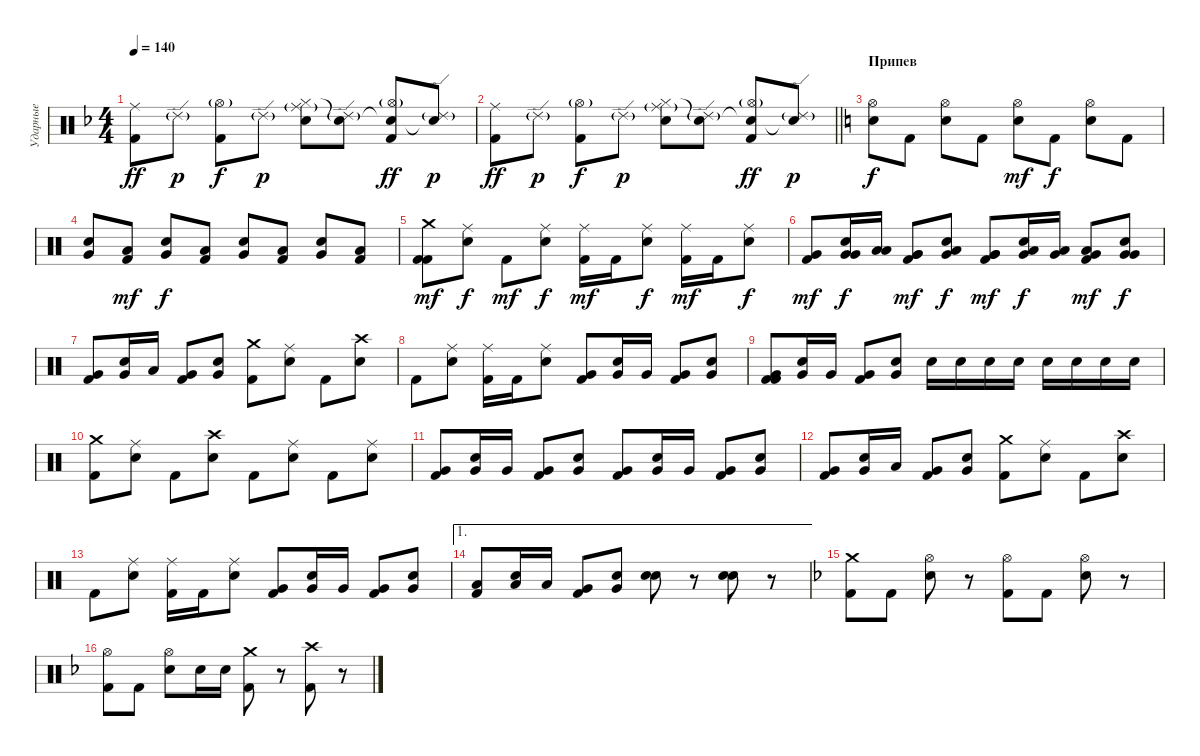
\track ("Ударные" "Ударные") {instrument percussion}
\staff {score}
\articulation defaults
\ts (4 4)
\tempo 140
\clef neutral
\ks f
("Ride (middle)" "Kick (hit) 2").8{dy ff} "Ride (edge) 2"{g}.8{dy p} ("Hi-Hat (open)"{g} "Kick (hit) 2").8{dy f} "Ride (edge) 2"{g}.8{dy p} ("Ride (middle)"{g} "Hi-Hat (closed)" "Electric Snare (hit)").8 ("Ride (edge) 2"{g} "Snare (hit)"{t}).8 ("Hi-Hat (open)"{g} "Snare (hit)"{t} "Kick (hit) 2").8{dy ff} ("Ride (edge) 2"{g} "Snare (hit)"{t}).8{dy p} |
\barLineRight lightlight
("Ride (middle)" "Kick (hit) 2").8{dy ff} "Ride (edge) 2"{g}.8{dy p} ("Hi-Hat (open)"{g} "Kick (hit) 2").8{dy f} "Ride (edge) 2"{g}.8{dy p} ("Ride (middle)"{g} "Hi-Hat (closed)" "Electric Snare (hit)").8 ("Ride (edge) 2"{g} "Snare (hit)"{t}).8 ("Hi-Hat (open)"{g} "Snare (hit)"{t} "Kick (hit) 2").8{dy ff} ("Ride (edge) 2"{g} "Snare (hit)"{t}).8{dy p} |
\section ("" "Припев")
\ks c
("Hi-Hat (open)" "Snare (hit) 2").8{dy f} "Kick (hit) 2".8 ("Hi-Hat (open)" "Snare (hit) 2").8 "Kick (hit) 2".8 ("Hi-Hat (open)" "Snare (hit) 2").8{dy mf} "Kick (hit) 2".8{dy f} ("Hi-Hat (open)" "Snare (hit) 2").8 "Kick (hit) 2".8 |
("Very Low Tom (hit)" "Snare (hit) 2").8 ("Low Tom (hit)" "Kick (hit) 2").8{dy mf} ("Very Low Tom (hit)" "Snare (hit) 2").8{dy f} ("Low Tom (hit)" "Kick (hit) 2").8 ("Very Low Tom (hit)" "Snare (hit) 2").8 ("Low Tom (hit)" "Kick (hit) 2").8 ("Very Low Tom (hit)" "Snare (hit) 2").8 ("Low Tom (hit)" "Kick (hit) 2").8 |
("Crash medium (hit)" "Kick (hit) 2" "Kick (hit) 2").8{dy mf} ("Ride (middle)" "Snare (hit) 2").8{dy f} "Kick (hit) 2".8{dy mf} ("Ride (middle)" "Snare (hit) 2").8{dy f} ("Ride (middle)" "Kick (hit) 2").16{dy mf} "Kick (hit) 2".16 ("Ride (middle)" "Snare (hit) 2").8{dy f} ("Ride (middle)" "Kick (hit) 2").16{dy mf} "Kick (hit) 2".16 ("Ride (middle)" "Snare (hit) 2").8{dy f} |
("Very Low Tom (hit)" "Kick (hit) 2").8{dy mf} ("Very Low Tom (hit)" "Very Low Tom (hit)" "Snare (hit) 2").16{dy f} ("Low Tom (hit)" "Low Tom (hit)").16 ("Very Low Tom (hit)" "Very Low Tom (hit)" "Kick (hit) 2").8{dy mf} ("Very Low Tom (hit)" "Low Tom (hit)" "Snare (hit) 2").8{dy f} ("Very Low Tom (hit)" "Very Low Tom (hit)" "Kick (hit) 2").8{dy mf} ("Very Low Tom (hit)" "Low Tom (hit)" "Snare (hit) 2").16{dy f} ("Low Tom (hit)" "Very Low Tom (hit)").16 ("Very Low Tom (hit)" "Low Tom (hit)" "Kick (hit) 2").8{dy mf} ("Very Low Tom (hit)" "Very Low Tom (hit)" "Snare (hit) 2").8{dy f} |
("Very Low Tom (hit)" "Kick (hit) 2").8 ("Very Low Tom (hit)" "Snare (hit) 2").16 "Low Tom (hit)".16 ("Very Low Tom (hit)" "Kick (hit) 2").8 ("Very Low Tom (hit)" "Snare (hit) 2").8 ("Crash medium (hit)" "Kick (hit) 2").8 ("Ride (middle)" "Snare (hit) 2").8 "Kick (hit) 2".8 ("Crash high (hit)" "Snare (hit) 2").8 |
"Kick (hit) 2".8 ("Ride (middle)" "Snare (hit) 2").8 ("Ride (middle)" "Kick (hit) 2").16 "Kick (hit) 2".16 ("Ride (middle)" "Snare (hit) 2").8 ("Very Low Tom (hit)" "Kick (hit) 2").8 ("Very Low Tom (hit)" "Snare (hit) 2").16 "Very Low Tom (hit)".16 ("Very Low Tom (hit)" "Kick (hit) 2").8 ("Very Low Tom (hit)" "Snare (hit) 2").8 |
("Very Low Tom (hit)" "Kick (hit) 2" "Kick (hit) 2").8 ("Very Low Tom (hit)" "Snare (hit) 2").16 "Very Low Tom (hit)".16 ("Very Low Tom (hit)" "Kick (hit) 2").8 ("Very Low Tom (hit)" "Snare (hit) 2").8 "Snare (hit) 2".16 "Snare (hit) 2".16 "Snare (hit) 2".16 "Snare (hit) 2".16 "Snare (hit) 2".16 "Snare (hit) 2".16 "Snare (hit) 2".16 "Snare (hit) 2".16 |
("Crash medium (hit)" "Kick (hit) 2").8 ("Ride (middle)" "Snare (hit) 2").8 "Kick (hit) 2".8 ("Crash high (hit)" "Snare (hit) 2").8 "Kick (hit) 2".8 ("Ride (middle)" "Snare (hit) 2").8 "Kick (hit) 2".8 ("Ride (middle)" "Snare (hit) 2").8 |
("Very Low Tom (hit)" "Kick (hit) 2").8 ("Very Low Tom (hit)" "Snare (hit) 2").16 "Very Low Tom (hit)".16 ("Very Low Tom (hit)" "Kick (hit) 2").8 ("Very Low Tom (hit)" "Snare (hit) 2").8 ("Very Low Tom (hit)" "Kick (hit) 2").8 ("Very Low Tom (hit)" "Snare (hit) 2").16 "Very Low Tom (hit)".16 ("Very Low Tom (hit)" "Kick (hit) 2").8 ("Very Low Tom (hit)" "Snare (hit) 2").8 |
("Very Low Tom (hit)" "Kick (hit) 2").8 ("Very Low Tom (hit)" "Snare (hit) 2").16 "Low Tom (hit)".16 ("Very Low Tom (hit)" "Kick (hit) 2").8 ("Very Low Tom (hit)" "Snare (hit) 2").8 ("Crash medium (hit)" "Kick (hit) 2").8 ("Ride (middle)" "Snare (hit) 2").8 "Kick (hit) 2".8 ("Crash high (hit)" "Snare (hit) 2").8 |
"Kick (hit) 2".8 ("Ride (middle)" "Snare (hit) 2").8 ("Ride (middle)" "Kick (hit) 2").16 "Kick (hit) 2".16 ("Ride (middle)" "Snare (hit) 2").8 ("Very Low Tom (hit)" "Kick (hit) 2").8 ("Very Low Tom (hit)" "Snare (hit) 2").16 "Very Low Tom (hit)".16 ("Very Low Tom (hit)" "Kick (hit) 2").8 ("Very Low Tom (hit)" "Snare (hit) 2").8 |
\ae 1
("Low Tom (hit)" "Kick (hit) 2").8 ("Low Tom (hit)" "Snare (hit) 2").16 "Low Tom (hit)".16 ("Very Low Tom (hit)" "Kick (hit) 2").8 ("Very Low Tom (hit)" "Snare (hit) 2").8 ("Electric Snare (hit)" "Electric Snare (hit)").8 r.8 ("Electric Snare (hit)" "Electric Snare (hit)").8 r.8 |
\ks f
("Crash medium (hit)" "Kick (hit) 2").8 "Kick (hit) 2".8 ("Hi-Hat (open)" "Snare (hit) 2").8 r.8 ("Hi-Hat (open)" "Kick (hit) 2").8 "Kick (hit) 2".8 ("Hi-Hat (open)" "Snare (hit) 2").8 r.8 |
("Hi-Hat (open)" "Kick (hit) 2").8 "Kick (hit) 2".8 ("Hi-Hat (open)" "Snare (hit) 2").8 "Snare (hit) 2".16 "Snare (hit) 2".16 ("Crash medium (hit)" "Kick (hit) 2").8 r.8 ("Crash high (hit)" "Kick (hit) 2").8 r.8
